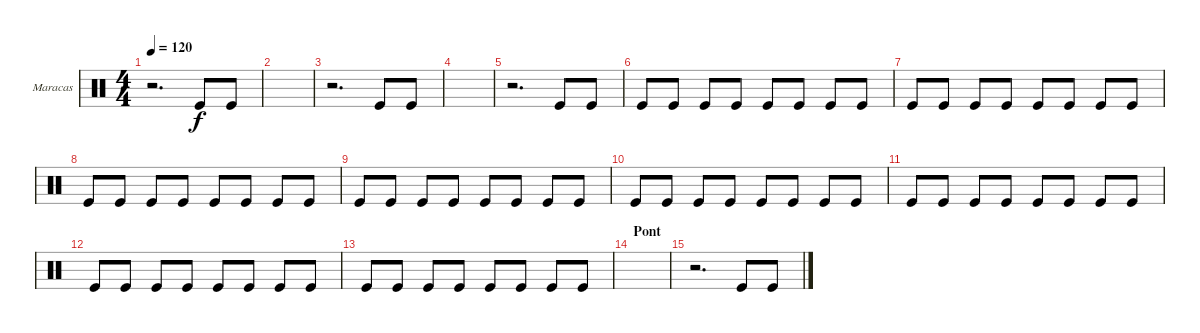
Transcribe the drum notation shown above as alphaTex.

\defaultSystemsLayout 4
\bracketExtendMode groupsimilarinstruments
\firstSystemTrackNameOrientation horizontal
\otherSystemsTrackNameOrientation horizontal
\track ("Maracas" "Maracas") {multiBarRest instrument percussion}
\staff {score}
\articulation defaults
\ts (4 4)
\tempo 120
\clef neutral
\ks c
r.2{d dy f} "Kick (hit)".8 "Kick (hit)".8 |
|
r.2{d} "Kick (hit)".8 "Kick (hit)".8 |
|
r.2{d} "Kick (hit)".8 "Kick (hit)".8 |
"Kick (hit)".8 "Kick (hit)".8 "Kick (hit)".8 "Kick (hit)".8 "Kick (hit)".8 "Kick (hit)".8 "Kick (hit)".8 "Kick (hit)".8 |
"Kick (hit)".8 "Kick (hit)".8 "Kick (hit)".8 "Kick (hit)".8 "Kick (hit)".8 "Kick (hit)".8 "Kick (hit)".8 "Kick (hit)".8 |
"Kick (hit)".8 "Kick (hit)".8 "Kick (hit)".8 "Kick (hit)".8 "Kick (hit)".8 "Kick (hit)".8 "Kick (hit)".8 "Kick (hit)".8 |
"Kick (hit)".8 "Kick (hit)".8 "Kick (hit)".8 "Kick (hit)".8 "Kick (hit)".8 "Kick (hit)".8 "Kick (hit)".8 "Kick (hit)".8 |
"Kick (hit)".8 "Kick (hit)".8 "Kick (hit)".8 "Kick (hit)".8 "Kick (hit)".8 "Kick (hit)".8 "Kick (hit)".8 "Kick (hit)".8 |
"Kick (hit)".8 "Kick (hit)".8 "Kick (hit)".8 "Kick (hit)".8 "Kick (hit)".8 "Kick (hit)".8 "Kick (hit)".8 "Kick (hit)".8 |
"Kick (hit)".8 "Kick (hit)".8 "Kick (hit)".8 "Kick (hit)".8 "Kick (hit)".8 "Kick (hit)".8 "Kick (hit)".8 "Kick (hit)".8 |
"Kick (hit)".8 "Kick (hit)".8 "Kick (hit)".8 "Kick (hit)".8 "Kick (hit)".8 "Kick (hit)".8 "Kick (hit)".8 "Kick (hit)".8 |
\section ("" "Pont")
|
r.2{d} "Kick (hit)".8 "Kick (hit)".8
